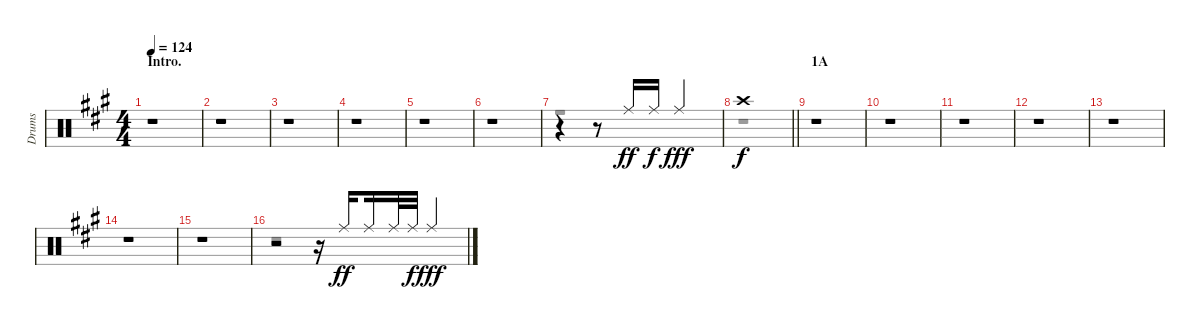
\track ("Drums" "Drums") {solo instrument percussion}
\staff {score}
\articulation defaults
\voice
\ts (4 4)
\section ("" "Intro.")
\tempo 124
\clef neutral
\ks a
r.1{dy ff} |
r.1 |
r.1 |
r.1 |
r.1 |
r.1 |
r.4 r.8 "Ride (middle)".16 "Ride (middle)".16{dy f} "Ride (middle)".2{dy fff} |
\barLineRight lightlight "Crash high (hit)".1{dy f}
|
\section ("" "1A")
r.1 |
r.1 |
r.1 |
r.1 |
r.1 |
r.1 |
r.1 |
r.2 r.16 "Ride (middle)".16{dy ff beam splitsecondary} "Ride (middle)".16 "Ride (middle)".32 "Ride (middle)".32{dy f} "Ride (middle)".4{dy fff}
\voice
\clef neutral
\ottava regular
\simile none
\ks a
|
|
|
|
|
|
r.1 |
\barLineRight lightlight
r.1 |
|
|
|
|
|
|
|
r.1
